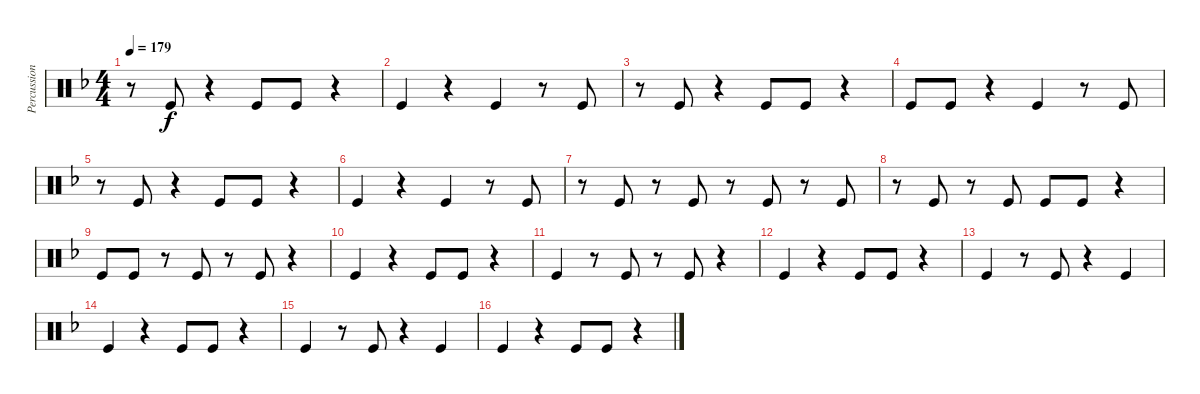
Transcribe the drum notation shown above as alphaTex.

\track ("Percussion 02" "Percussion") {instrument percussion}
\staff {score}
\articulation defaults
\ts (4 4)
\tempo 179
\clef neutral
\ks dminor
r.8{dy f} "Kick (hit)".8 r.4 "Kick (hit)".8 "Kick (hit)".8 r.4 |
"Kick (hit)".4 r.4 "Kick (hit)".4 r.8 "Kick (hit)".8 |
r.8 "Kick (hit)".8 r.4 "Kick (hit)".8 "Kick (hit)".8 r.4 |
"Kick (hit)".8 "Kick (hit)".8 r.4 "Kick (hit)".4 r.8 "Kick (hit)".8 |
r.8 "Kick (hit)".8 r.4 "Kick (hit)".8 "Kick (hit)".8 r.4 |
"Kick (hit)".4 r.4 "Kick (hit)".4 r.8 "Kick (hit)".8 |
r.8 "Kick (hit)".8 r.8 "Kick (hit)".8 r.8 "Kick (hit)".8 r.8 "Kick (hit)".8 |
r.8 "Kick (hit)".8 r.8 "Kick (hit)".8 "Kick (hit)".8 "Kick (hit)".8 r.4 |
"Kick (hit)".8 "Kick (hit)".8 r.8 "Kick (hit)".8 r.8 "Kick (hit)".8 r.4 |
"Kick (hit)".4 r.4 "Kick (hit)".8 "Kick (hit)".8 r.4 |
"Kick (hit)".4 r.8 "Kick (hit)".8 r.8 "Kick (hit)".8 r.4 |
"Kick (hit)".4 r.4 "Kick (hit)".8 "Kick (hit)".8 r.4 |
"Kick (hit)".4 r.8 "Kick (hit)".8 r.4 "Kick (hit)".4 |
"Kick (hit)".4 r.4 "Kick (hit)".8 "Kick (hit)".8 r.4 |
"Kick (hit)".4 r.8 "Kick (hit)".8 r.4 "Kick (hit)".4 |
"Kick (hit)".4 r.4 "Kick (hit)".8 "Kick (hit)".8 r.4
